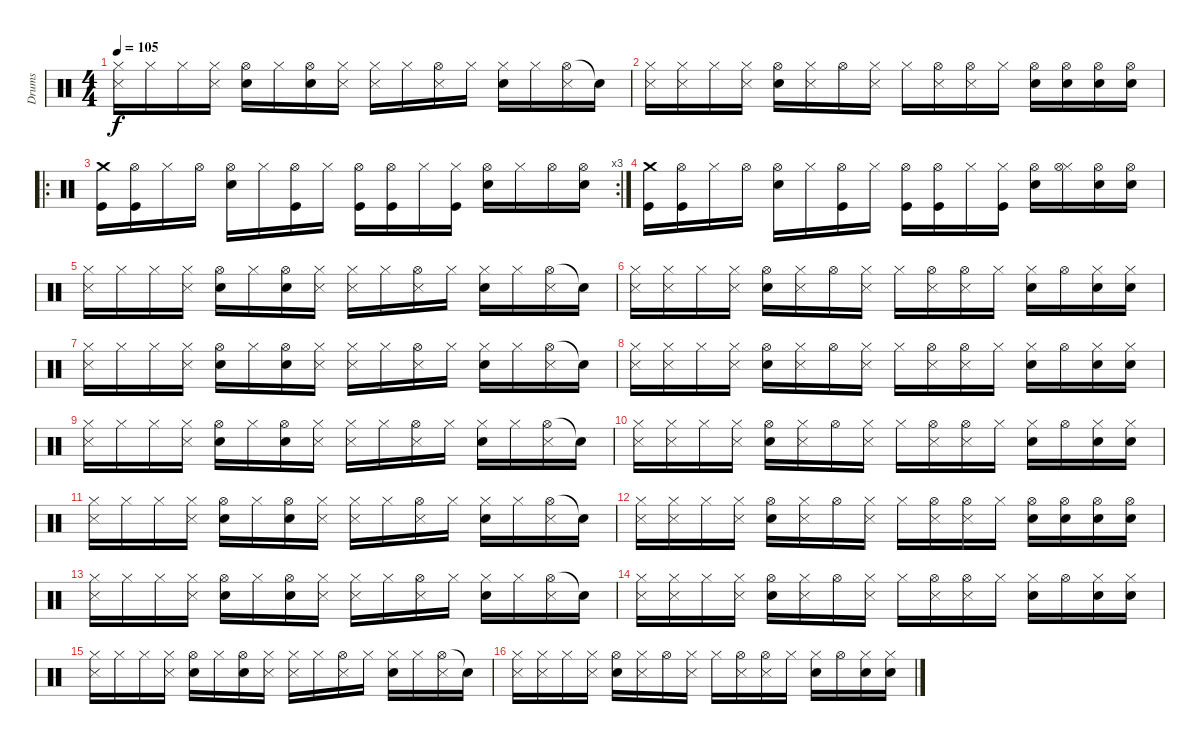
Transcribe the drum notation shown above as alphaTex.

\track ("Drums" "Drums") {instrument percussion}
\staff {score}
\articulation defaults
\ts (4 4)
\tempo 105
\clef neutral
\ks c
("Hi-Hat (closed)" "Metronome (hit)").16{dy f} "Hi-Hat (closed)".16 "Hi-Hat (closed)".16 ("Hi-Hat (closed)" "Metronome (hit)").16 ("Hi-Hat (open)" "Metronome (bell)").16 "Hi-Hat (closed)".16 ("Hi-Hat (open)" "Metronome (bell)").16 ("Hi-Hat (closed)" "Metronome (hit)").16 ("Hi-Hat (closed)" "Metronome (hit)").16 "Hi-Hat (closed)".16 ("Hi-Hat (open)" "Metronome (hit)").16 "Hi-Hat (closed)".16 ("Hi-Hat (closed)" "Metronome (bell)").16 "Hi-Hat (closed)".16 ("Hi-Hat (open)" "Metronome (hit)").16 "Snare (hit)"{t}.16 |
("Hi-Hat (closed)" "Metronome (hit)").16 ("Hi-Hat (closed)" "Metronome (hit)").16 "Hi-Hat (closed)".16 ("Hi-Hat (closed)" "Metronome (hit)").16 ("Hi-Hat (open)" "Metronome (bell)").16 ("Hi-Hat (closed)" "Metronome (hit)").16 "Hi-Hat (open)".16 ("Hi-Hat (closed)" "Metronome (hit)").16 "Hi-Hat (closed)".16 ("Hi-Hat (open)" "Metronome (hit)").16 ("Hi-Hat (open)" "Metronome (hit)").16 "Hi-Hat (closed)".16 ("Hi-Hat (open)" "Metronome (bell)").16 ("Hi-Hat (open)" "Metronome (bell)").16 ("Hi-Hat (open)" "Metronome (bell)").16 ("Hi-Hat (open)" "Metronome (bell)").16 |
\ro
\rc 3
("Crash medium (hit)" "Kick (hit)").16 ("Hi-Hat (open)" "Kick (hit)").16 "Hi-Hat (closed)".16 "Hi-Hat (open)".16 ("Hi-Hat (open)" "Electric Snare (hit)").16 "Hi-Hat (closed)".16 ("Hi-Hat (open)" "Kick (hit)").16 "Hi-Hat (closed)".16 ("Hi-Hat (open)" "Kick (hit)").16 ("Hi-Hat (open)" "Kick (hit)").16 "Hi-Hat (closed)".16 ("Hi-Hat (closed)" "Kick (hit)").16 ("Hi-Hat (open)" "Electric Snare (hit)").16 "Hi-Hat (closed)".16 "Hi-Hat (open)".16 ("Hi-Hat (open)" "Electric Snare (hit)").16 |
("Crash medium (hit)" "Kick (hit)").16 ("Hi-Hat (open)" "Kick (hit)").16 "Hi-Hat (closed)".16 "Hi-Hat (open)".16 ("Hi-Hat (open)" "Electric Snare (hit)").16 "Hi-Hat (closed)".16 ("Hi-Hat (open)" "Kick (hit)").16 "Hi-Hat (closed)".16 ("Hi-Hat (open)" "Kick (hit)").16 ("Hi-Hat (open)" "Kick (hit)").16 "Hi-Hat (closed)".16 ("Hi-Hat (closed)" "Kick (hit)").16 ("Hi-Hat (open)" "Electric Snare (hit)").16 ("Hi-Hat (closed)" "Hi-Hat (open)").16 ("Hi-Hat (open)" "Electric Snare (hit)").16 ("Hi-Hat (open)" "Electric Snare (hit)").16 |
("Hi-Hat (closed)" "Metronome (hit)").16 "Hi-Hat (closed)".16 "Hi-Hat (closed)".16 ("Hi-Hat (closed)" "Metronome (hit)").16 ("Hi-Hat (open)" "Metronome (bell)").16 "Hi-Hat (closed)".16 ("Hi-Hat (open)" "Metronome (bell)").16 ("Hi-Hat (closed)" "Metronome (hit)").16 ("Hi-Hat (closed)" "Metronome (hit)").16 "Hi-Hat (closed)".16 ("Hi-Hat (open)" "Metronome (hit)").16 "Hi-Hat (closed)".16 ("Hi-Hat (closed)" "Metronome (bell)").16 "Hi-Hat (closed)".16 ("Hi-Hat (open)" "Metronome (hit)").16 "Snare (hit)"{t}.16 |
("Hi-Hat (closed)" "Metronome (hit)").16 ("Hi-Hat (closed)" "Metronome (hit)").16 "Hi-Hat (closed)".16 ("Hi-Hat (closed)" "Metronome (hit)").16 ("Hi-Hat (open)" "Metronome (bell)").16 ("Hi-Hat (closed)" "Metronome (hit)").16 "Hi-Hat (open)".16 ("Hi-Hat (closed)" "Metronome (hit)").16 "Hi-Hat (closed)".16 ("Hi-Hat (open)" "Metronome (hit)").16 ("Hi-Hat (open)" "Metronome (hit)").16 "Hi-Hat (closed)".16 ("Hi-Hat (closed)" "Metronome (bell)").16 "Hi-Hat (open)".16 ("Hi-Hat (closed)" "Metronome (bell)").16 ("Hi-Hat (closed)" "Metronome (bell)").16 |
("Hi-Hat (closed)" "Metronome (hit)").16 "Hi-Hat (closed)".16 "Hi-Hat (closed)".16 ("Hi-Hat (closed)" "Metronome (hit)").16 ("Hi-Hat (open)" "Metronome (bell)").16 "Hi-Hat (closed)".16 ("Hi-Hat (open)" "Metronome (bell)").16 ("Hi-Hat (closed)" "Metronome (hit)").16 ("Hi-Hat (closed)" "Metronome (hit)").16 "Hi-Hat (closed)".16 ("Hi-Hat (open)" "Metronome (hit)").16 "Hi-Hat (closed)".16 ("Hi-Hat (closed)" "Metronome (bell)").16 "Hi-Hat (closed)".16 ("Hi-Hat (open)" "Metronome (hit)").16 "Snare (hit)"{t}.16 |
("Hi-Hat (closed)" "Metronome (hit)").16 ("Hi-Hat (closed)" "Metronome (hit)").16 "Hi-Hat (closed)".16 ("Hi-Hat (closed)" "Metronome (hit)").16 ("Hi-Hat (open)" "Metronome (bell)").16 ("Hi-Hat (closed)" "Metronome (hit)").16 "Hi-Hat (open)".16 ("Hi-Hat (closed)" "Metronome (hit)").16 "Hi-Hat (closed)".16 ("Hi-Hat (open)" "Metronome (hit)").16 ("Hi-Hat (open)" "Metronome (hit)").16 "Hi-Hat (closed)".16 ("Hi-Hat (closed)" "Metronome (bell)").16 "Hi-Hat (open)".16 ("Hi-Hat (closed)" "Metronome (bell)").16 ("Hi-Hat (closed)" "Metronome (bell)").16 |
("Hi-Hat (closed)" "Metronome (hit)").16 "Hi-Hat (closed)".16 "Hi-Hat (closed)".16 ("Hi-Hat (closed)" "Metronome (hit)").16 ("Hi-Hat (open)" "Metronome (bell)").16 "Hi-Hat (closed)".16 ("Hi-Hat (open)" "Metronome (bell)").16 ("Hi-Hat (closed)" "Metronome (hit)").16 ("Hi-Hat (closed)" "Metronome (hit)").16 "Hi-Hat (closed)".16 ("Hi-Hat (open)" "Metronome (hit)").16 "Hi-Hat (closed)".16 ("Hi-Hat (closed)" "Metronome (bell)").16 "Hi-Hat (closed)".16 ("Hi-Hat (open)" "Metronome (hit)").16 "Snare (hit)"{t}.16 |
("Hi-Hat (closed)" "Metronome (hit)").16 ("Hi-Hat (closed)" "Metronome (hit)").16 "Hi-Hat (closed)".16 ("Hi-Hat (closed)" "Metronome (hit)").16 ("Hi-Hat (open)" "Metronome (bell)").16 ("Hi-Hat (closed)" "Metronome (hit)").16 "Hi-Hat (open)".16 ("Hi-Hat (closed)" "Metronome (hit)").16 "Hi-Hat (closed)".16 ("Hi-Hat (open)" "Metronome (hit)").16 ("Hi-Hat (open)" "Metronome (hit)").16 "Hi-Hat (closed)".16 ("Hi-Hat (closed)" "Metronome (bell)").16 "Hi-Hat (open)".16 ("Hi-Hat (closed)" "Metronome (bell)").16 ("Hi-Hat (closed)" "Metronome (bell)").16 |
("Hi-Hat (closed)" "Metronome (hit)").16 "Hi-Hat (closed)".16 "Hi-Hat (closed)".16 ("Hi-Hat (closed)" "Metronome (hit)").16 ("Hi-Hat (open)" "Metronome (bell)").16 "Hi-Hat (closed)".16 ("Hi-Hat (open)" "Metronome (bell)").16 ("Hi-Hat (closed)" "Metronome (hit)").16 ("Hi-Hat (closed)" "Metronome (hit)").16 "Hi-Hat (closed)".16 ("Hi-Hat (open)" "Metronome (hit)").16 "Hi-Hat (closed)".16 ("Hi-Hat (closed)" "Metronome (bell)").16 "Hi-Hat (closed)".16 ("Hi-Hat (open)" "Metronome (hit)").16 "Snare (hit)"{t}.16 |
("Hi-Hat (closed)" "Metronome (hit)").16 ("Hi-Hat (closed)" "Metronome (hit)").16 "Hi-Hat (closed)".16 ("Hi-Hat (closed)" "Metronome (hit)").16 ("Hi-Hat (open)" "Metronome (bell)").16 ("Hi-Hat (closed)" "Metronome (hit)").16 "Hi-Hat (open)".16 ("Hi-Hat (closed)" "Metronome (hit)").16 "Hi-Hat (closed)".16 ("Hi-Hat (open)" "Metronome (hit)").16 ("Hi-Hat (open)" "Metronome (hit)").16 "Hi-Hat (closed)".16 ("Hi-Hat (open)" "Metronome (bell)").16 ("Hi-Hat (open)" "Metronome (bell)").16 ("Hi-Hat (open)" "Metronome (bell)").16 ("Hi-Hat (open)" "Metronome (bell)").16 |
("Hi-Hat (closed)" "Metronome (hit)").16 "Hi-Hat (closed)".16 "Hi-Hat (closed)".16 ("Hi-Hat (closed)" "Metronome (hit)").16 ("Hi-Hat (open)" "Metronome (bell)").16 "Hi-Hat (closed)".16 ("Hi-Hat (open)" "Metronome (bell)").16 ("Hi-Hat (closed)" "Metronome (hit)").16 ("Hi-Hat (closed)" "Metronome (hit)").16 "Hi-Hat (closed)".16 ("Hi-Hat (open)" "Metronome (hit)").16 "Hi-Hat (closed)".16 ("Hi-Hat (closed)" "Metronome (bell)").16 "Hi-Hat (closed)".16 ("Hi-Hat (open)" "Metronome (hit)").16 "Snare (hit)"{t}.16 |
("Hi-Hat (closed)" "Metronome (hit)").16 ("Hi-Hat (closed)" "Metronome (hit)").16 "Hi-Hat (closed)".16 ("Hi-Hat (closed)" "Metronome (hit)").16 ("Hi-Hat (open)" "Metronome (bell)").16 ("Hi-Hat (closed)" "Metronome (hit)").16 "Hi-Hat (open)".16 ("Hi-Hat (closed)" "Metronome (hit)").16 "Hi-Hat (closed)".16 ("Hi-Hat (open)" "Metronome (hit)").16 ("Hi-Hat (open)" "Metronome (hit)").16 "Hi-Hat (closed)".16 ("Hi-Hat (closed)" "Metronome (bell)").16 "Hi-Hat (open)".16 ("Hi-Hat (closed)" "Metronome (bell)").16 ("Hi-Hat (closed)" "Metronome (bell)").16 |
("Hi-Hat (closed)" "Metronome (hit)").16 "Hi-Hat (closed)".16 "Hi-Hat (closed)".16 ("Hi-Hat (closed)" "Metronome (hit)").16 ("Hi-Hat (open)" "Metronome (bell)").16 "Hi-Hat (closed)".16 ("Hi-Hat (open)" "Metronome (bell)").16 ("Hi-Hat (closed)" "Metronome (hit)").16 ("Hi-Hat (closed)" "Metronome (hit)").16 "Hi-Hat (closed)".16 ("Hi-Hat (open)" "Metronome (hit)").16 "Hi-Hat (closed)".16 ("Hi-Hat (closed)" "Metronome (bell)").16 "Hi-Hat (closed)".16 ("Hi-Hat (open)" "Metronome (hit)").16 "Snare (hit)"{t}.16 |
("Hi-Hat (closed)" "Metronome (hit)").16 ("Hi-Hat (closed)" "Metronome (hit)").16 "Hi-Hat (closed)".16 ("Hi-Hat (closed)" "Metronome (hit)").16 ("Hi-Hat (open)" "Metronome (bell)").16 ("Hi-Hat (closed)" "Metronome (hit)").16 "Hi-Hat (open)".16 ("Hi-Hat (closed)" "Metronome (hit)").16 "Hi-Hat (closed)".16 ("Hi-Hat (open)" "Metronome (hit)").16 ("Hi-Hat (open)" "Metronome (hit)").16 "Hi-Hat (closed)".16 ("Hi-Hat (closed)" "Metronome (bell)").16 "Hi-Hat (open)".16 ("Hi-Hat (closed)" "Metronome (bell)").16 ("Hi-Hat (closed)" "Metronome (bell)").16
